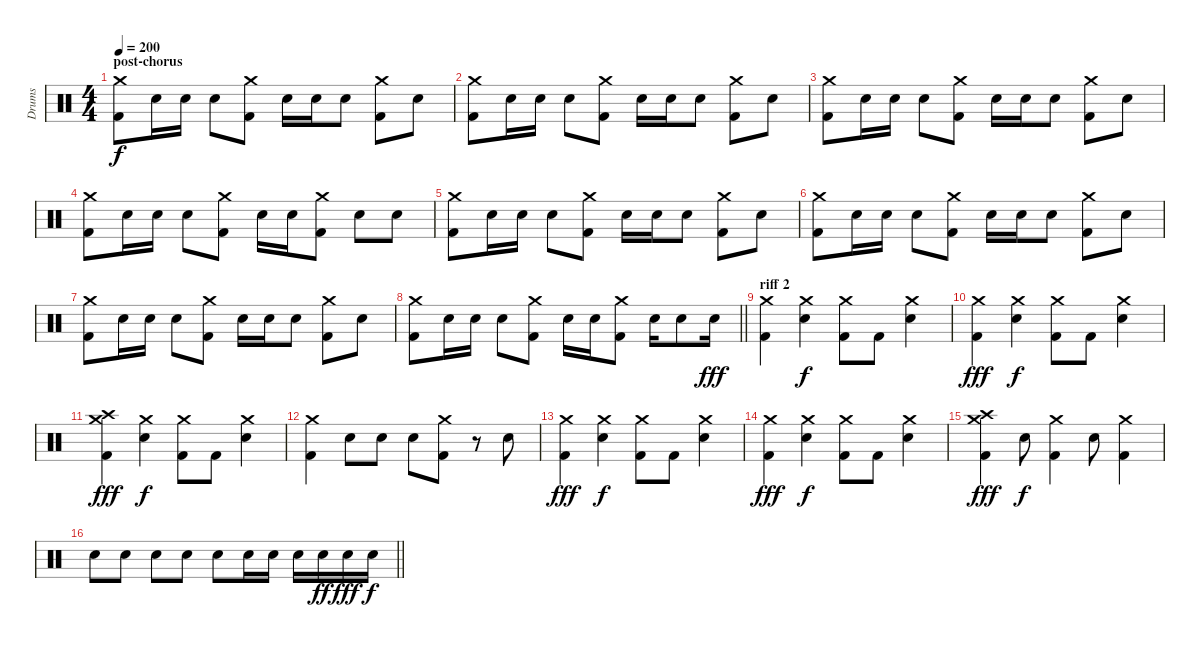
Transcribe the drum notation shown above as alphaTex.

\track ("Drums" "Drums") {instrument percussion}
\staff {score}
\articulation defaults
\ts (4 4)
\section ("" "post-chorus")
\tempo 200
\clef neutral
\ks c
("Crash medium (hit)" "Kick (hit) 2").8{dy f} "Electric Snare (hit)".16 "Electric Snare (hit)".16 "Electric Snare (hit)".8 ("Crash medium (hit)" "Kick (hit) 2").8 "Electric Snare (hit)".16 "Electric Snare (hit)".16 "Electric Snare (hit)".8 ("Crash medium (hit)" "Kick (hit) 2").8 "Electric Snare (hit)".8 |
("Crash medium (hit)" "Kick (hit) 2").8 "Electric Snare (hit)".16 "Electric Snare (hit)".16 "Electric Snare (hit)".8 ("Crash medium (hit)" "Kick (hit) 2").8 "Electric Snare (hit)".16 "Electric Snare (hit)".16 "Electric Snare (hit)".8 ("Crash medium (hit)" "Kick (hit) 2").8 "Electric Snare (hit)".8 |
("Crash medium (hit)" "Kick (hit) 2").8 "Electric Snare (hit)".16 "Electric Snare (hit)".16 "Electric Snare (hit)".8 ("Crash medium (hit)" "Kick (hit) 2").8 "Electric Snare (hit)".16 "Electric Snare (hit)".16 "Electric Snare (hit)".8 ("Crash medium (hit)" "Kick (hit) 2").8 "Electric Snare (hit)".8 |
("Crash medium (hit)" "Kick (hit) 2").8 "Electric Snare (hit)".16 "Electric Snare (hit)".16 "Electric Snare (hit)".8 ("Crash medium (hit)" "Kick (hit) 2").8 "Electric Snare (hit)".16 "Electric Snare (hit)".16 ("Crash medium (hit)" "Kick (hit) 2").8 "Electric Snare (hit)".8 "Electric Snare (hit)".8 |
("Crash medium (hit)" "Kick (hit) 2").8 "Electric Snare (hit)".16 "Electric Snare (hit)".16 "Electric Snare (hit)".8 ("Crash medium (hit)" "Kick (hit) 2").8 "Electric Snare (hit)".16 "Electric Snare (hit)".16 "Electric Snare (hit)".8 ("Crash medium (hit)" "Kick (hit) 2").8 "Electric Snare (hit)".8 |
("Crash medium (hit)" "Kick (hit) 2").8 "Electric Snare (hit)".16 "Electric Snare (hit)".16 "Electric Snare (hit)".8 ("Crash medium (hit)" "Kick (hit) 2").8 "Electric Snare (hit)".16 "Electric Snare (hit)".16 "Electric Snare (hit)".8 ("Crash medium (hit)" "Kick (hit) 2").8 "Electric Snare (hit)".8 |
("Crash medium (hit)" "Kick (hit) 2").8 "Electric Snare (hit)".16 "Electric Snare (hit)".16 "Electric Snare (hit)".8 ("Crash medium (hit)" "Kick (hit) 2").8 "Electric Snare (hit)".16 "Electric Snare (hit)".16 "Electric Snare (hit)".8 ("Crash medium (hit)" "Kick (hit) 2").8 "Electric Snare (hit)".8 |
\barLineRight lightlight
("Crash medium (hit)" "Kick (hit) 2").8 "Electric Snare (hit)".16 "Electric Snare (hit)".16 "Electric Snare (hit)".8 ("Crash medium (hit)" "Kick (hit) 2").8 "Electric Snare (hit)".16 "Electric Snare (hit)".16 ("Crash medium (hit)" "Kick (hit) 2").8 "Electric Snare (hit)".16 "Electric Snare (hit)".8 "Electric Snare (hit)".16{dy fff} |
\section ("" "riff 2")
("Crash medium (hit)" "Kick (hit) 2").4 ("Crash medium (hit)" "Electric Snare (hit)").4{dy f} ("Crash medium (hit)" "Kick (hit) 2").8 "Kick (hit) 2".8 ("Crash medium (hit)" "Electric Snare (hit)").4 |
("Crash medium (hit)" "Kick (hit) 2").4{dy fff} ("Crash medium (hit)" "Electric Snare (hit)").4{dy f} ("Crash medium (hit)" "Kick (hit) 2").8 "Kick (hit) 2".8 ("Crash medium (hit)" "Electric Snare (hit)").4 |
("Crash medium (hit)" "Crash high (hit)" "Kick (hit) 2").4{dy fff} ("Crash medium (hit)" "Electric Snare (hit)").4{dy f} ("Crash medium (hit)" "Kick (hit) 2").8 "Kick (hit) 2".8 ("Crash medium (hit)" "Electric Snare (hit)").4 |
("Crash medium (hit)" "Kick (hit) 2").4 "Electric Snare (hit)".8 "Electric Snare (hit)".8 "Electric Snare (hit)".8 ("Crash medium (hit)" "Kick (hit) 2").8 r.8 "Electric Snare (hit)".8 |
("Crash medium (hit)" "Kick (hit) 2").4{dy fff} ("Crash medium (hit)" "Electric Snare (hit)").4{dy f} ("Crash medium (hit)" "Kick (hit) 2").8 "Kick (hit) 2".8 ("Crash medium (hit)" "Electric Snare (hit)").4 |
("Crash medium (hit)" "Kick (hit) 2").4{dy fff} ("Crash medium (hit)" "Electric Snare (hit)").4{dy f} ("Crash medium (hit)" "Kick (hit) 2").8 "Kick (hit) 2".8 ("Crash medium (hit)" "Electric Snare (hit)").4 |
("Crash medium (hit)" "Crash high (hit)" "Kick (hit) 2").4{dy fff} "Electric Snare (hit)".8{dy f} ("Crash medium (hit)" "Kick (hit) 2").4 "Electric Snare (hit)".8 ("Crash medium (hit)" "Kick (hit) 2").4 |
\barLineRight lightlight "Electric Snare (hit)".8 "Electric Snare (hit)".8 "Electric Snare (hit)".8 "Electric Snare (hit)".8 "Electric Snare (hit)".8 "Electric Snare (hit)".16 "Electric Snare (hit)".16 "Electric Snare (hit)".16 "Electric Snare (hit)".16{dy ff} "Electric Snare (hit)".16{dy fff} "Electric Snare (hit)".16{dy f}
